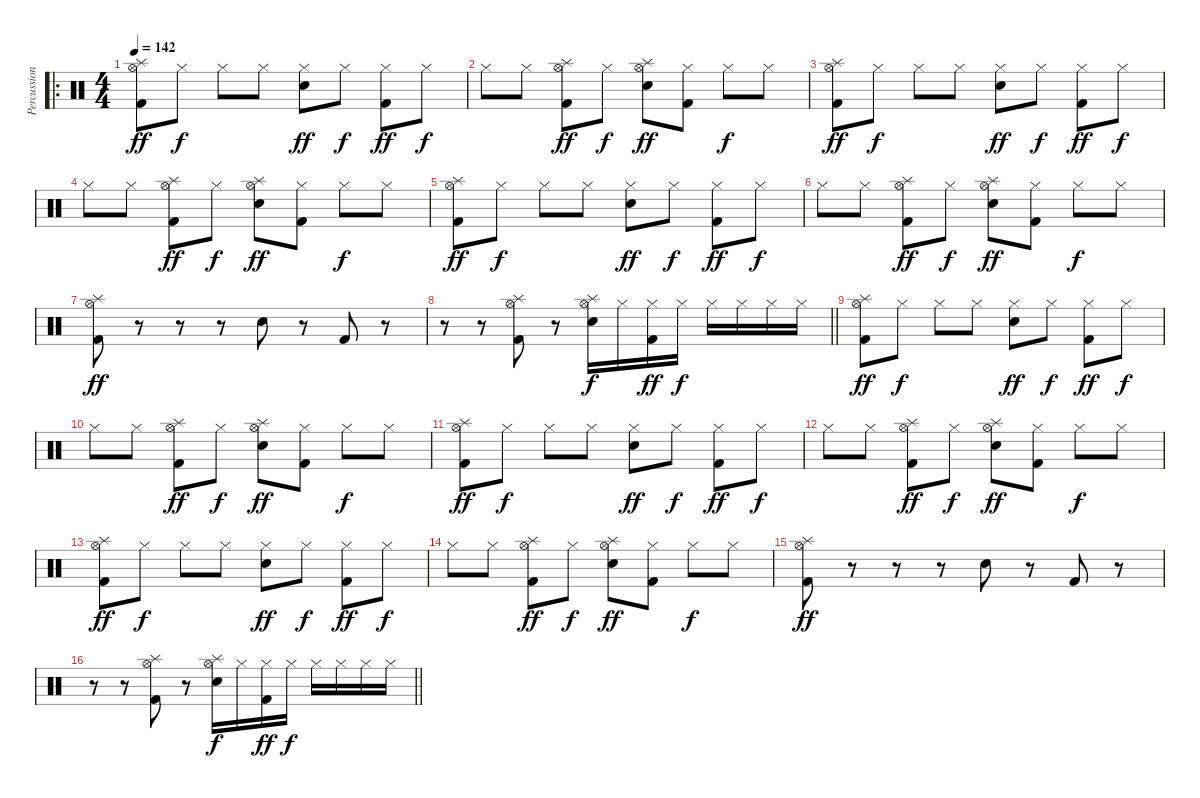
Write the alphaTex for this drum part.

\track ("Percussion" "Percussion") {instrument percussion}
\staff {score}
\articulation defaults
\ro
\ts (4 4)
\tempo 142
\clef neutral
\ks c
("Hi-Hat (open)" "Splash (hit)" "Kick (hit) 2").8{dy ff} "Hi-Hat (closed)".8{dy f} "Hi-Hat (closed)".8 "Hi-Hat (closed)".8 ("Hi-Hat (closed)" "Snare (hit) 2").8{dy ff} "Hi-Hat (closed)".8{dy f} ("Hi-Hat (closed)" "Kick (hit) 2").8{dy ff} "Hi-Hat (closed)".8{dy f} |
"Hi-Hat (closed)".8 "Hi-Hat (closed)".8 ("Hi-Hat (open)" "Splash (hit)" "Kick (hit) 2").8{dy ff} "Hi-Hat (closed)".8{dy f} ("Hi-Hat (open)" "Splash (hit)" "Snare (hit) 2").8{dy ff} ("Hi-Hat (closed)" "Kick (hit) 2").8 "Hi-Hat (closed)".8{dy f} "Hi-Hat (closed)".8 |
("Hi-Hat (open)" "Splash (hit)" "Kick (hit) 2").8{dy ff} "Hi-Hat (closed)".8{dy f} "Hi-Hat (closed)".8 "Hi-Hat (closed)".8 ("Hi-Hat (closed)" "Snare (hit) 2").8{dy ff} "Hi-Hat (closed)".8{dy f} ("Hi-Hat (closed)" "Kick (hit) 2").8{dy ff} "Hi-Hat (closed)".8{dy f} |
"Hi-Hat (closed)".8 "Hi-Hat (closed)".8 ("Hi-Hat (open)" "Splash (hit)" "Kick (hit) 2").8{dy ff} "Hi-Hat (closed)".8{dy f} ("Hi-Hat (open)" "Splash (hit)" "Snare (hit) 2").8{dy ff} ("Hi-Hat (closed)" "Kick (hit) 2").8 "Hi-Hat (closed)".8{dy f} "Hi-Hat (closed)".8 |
("Hi-Hat (open)" "Splash (hit)" "Kick (hit) 2").8{dy ff} "Hi-Hat (closed)".8{dy f} "Hi-Hat (closed)".8 "Hi-Hat (closed)".8 ("Hi-Hat (closed)" "Snare (hit) 2").8{dy ff} "Hi-Hat (closed)".8{dy f} ("Hi-Hat (closed)" "Kick (hit) 2").8{dy ff} "Hi-Hat (closed)".8{dy f} |
"Hi-Hat (closed)".8 "Hi-Hat (closed)".8 ("Hi-Hat (open)" "Splash (hit)" "Kick (hit) 2").8{dy ff} "Hi-Hat (closed)".8{dy f} ("Hi-Hat (open)" "Splash (hit)" "Snare (hit) 2").8{dy ff} ("Hi-Hat (closed)" "Kick (hit) 2").8 "Hi-Hat (closed)".8{dy f} "Hi-Hat (closed)".8 |
("Hi-Hat (open)" "Splash (hit)" "Kick (hit) 2").8{dy ff} r.8 r.8 r.8 "Snare (hit) 2".8 r.8 "Kick (hit) 2".8 r.8 |
\barLineRight lightlight
r.8 r.8 ("Hi-Hat (open)" "Splash (hit)" "Kick (hit) 2").8 r.8 ("Hi-Hat (open)" "Splash (hit)" "Snare (hit) 2").16{dy f} "Hi-Hat (closed)".16 ("Hi-Hat (closed)" "Kick (hit) 2").16{dy ff} "Hi-Hat (closed)".16{dy f} "Hi-Hat (closed)".16 "Hi-Hat (closed)".16 "Hi-Hat (closed)".16 "Hi-Hat (closed)".16 |
("Hi-Hat (open)" "Splash (hit)" "Kick (hit) 2").8{dy ff} "Hi-Hat (closed)".8{dy f} "Hi-Hat (closed)".8 "Hi-Hat (closed)".8 ("Hi-Hat (closed)" "Snare (hit) 2").8{dy ff} "Hi-Hat (closed)".8{dy f} ("Hi-Hat (closed)" "Kick (hit) 2").8{dy ff} "Hi-Hat (closed)".8{dy f} |
"Hi-Hat (closed)".8 "Hi-Hat (closed)".8 ("Hi-Hat (open)" "Splash (hit)" "Kick (hit) 2").8{dy ff} "Hi-Hat (closed)".8{dy f} ("Hi-Hat (open)" "Splash (hit)" "Snare (hit) 2").8{dy ff} ("Hi-Hat (closed)" "Kick (hit) 2").8 "Hi-Hat (closed)".8{dy f} "Hi-Hat (closed)".8 |
("Hi-Hat (open)" "Splash (hit)" "Kick (hit) 2").8{dy ff} "Hi-Hat (closed)".8{dy f} "Hi-Hat (closed)".8 "Hi-Hat (closed)".8 ("Hi-Hat (closed)" "Snare (hit) 2").8{dy ff} "Hi-Hat (closed)".8{dy f} ("Hi-Hat (closed)" "Kick (hit) 2").8{dy ff} "Hi-Hat (closed)".8{dy f} |
"Hi-Hat (closed)".8 "Hi-Hat (closed)".8 ("Hi-Hat (open)" "Splash (hit)" "Kick (hit) 2").8{dy ff} "Hi-Hat (closed)".8{dy f} ("Hi-Hat (open)" "Splash (hit)" "Snare (hit) 2").8{dy ff} ("Hi-Hat (closed)" "Kick (hit) 2").8 "Hi-Hat (closed)".8{dy f} "Hi-Hat (closed)".8 |
("Hi-Hat (open)" "Splash (hit)" "Kick (hit) 2").8{dy ff} "Hi-Hat (closed)".8{dy f} "Hi-Hat (closed)".8 "Hi-Hat (closed)".8 ("Hi-Hat (closed)" "Snare (hit) 2").8{dy ff} "Hi-Hat (closed)".8{dy f} ("Hi-Hat (closed)" "Kick (hit) 2").8{dy ff} "Hi-Hat (closed)".8{dy f} |
"Hi-Hat (closed)".8 "Hi-Hat (closed)".8 ("Hi-Hat (open)" "Splash (hit)" "Kick (hit) 2").8{dy ff} "Hi-Hat (closed)".8{dy f} ("Hi-Hat (open)" "Splash (hit)" "Snare (hit) 2").8{dy ff} ("Hi-Hat (closed)" "Kick (hit) 2").8 "Hi-Hat (closed)".8{dy f} "Hi-Hat (closed)".8 |
("Hi-Hat (open)" "Splash (hit)" "Kick (hit) 2").8{dy ff} r.8 r.8 r.8 "Snare (hit) 2".8 r.8 "Kick (hit) 2".8 r.8 |
\barLineRight lightlight
r.8 r.8 ("Hi-Hat (open)" "Splash (hit)" "Kick (hit) 2").8 r.8 ("Hi-Hat (open)" "Splash (hit)" "Snare (hit) 2").16{dy f} "Hi-Hat (closed)".16 ("Hi-Hat (closed)" "Kick (hit) 2").16{dy ff} "Hi-Hat (closed)".16{dy f} "Hi-Hat (closed)".16 "Hi-Hat (closed)".16 "Hi-Hat (closed)".16 "Hi-Hat (closed)".16
